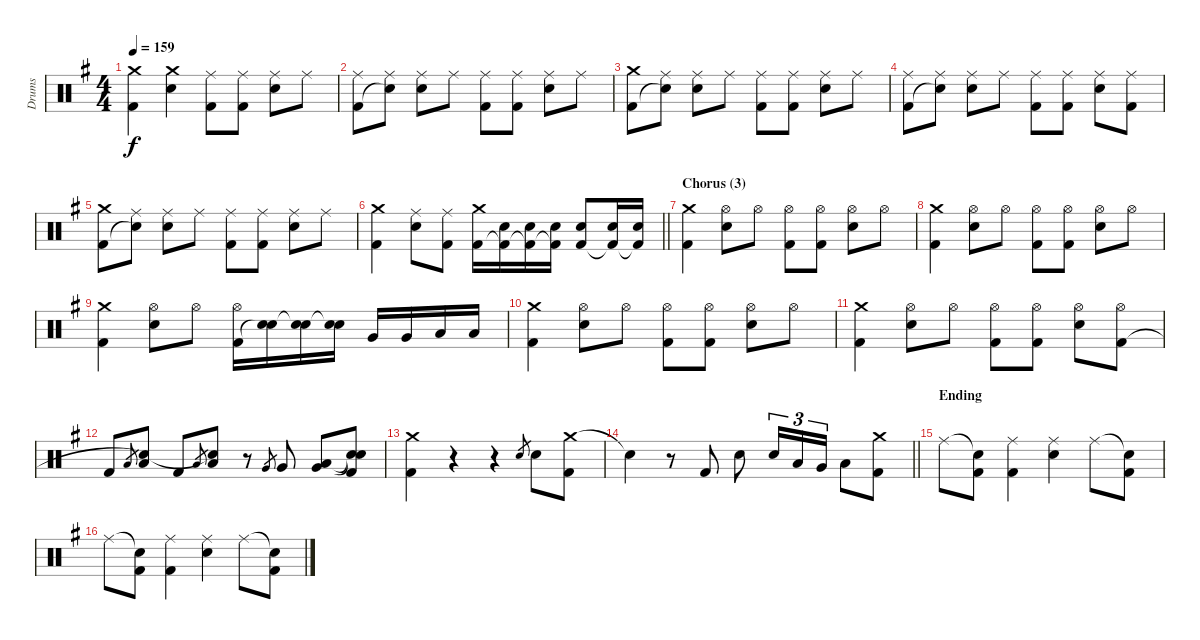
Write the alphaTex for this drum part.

\track ("Drums" "Drums") {instrument percussion}
\staff {score}
\articulation defaults
\ts (4 4)
\tempo 159
\clef neutral
\ks g
("Crash medium (hit)" "Kick (hit) 2").4{dy f} ("Crash medium (hit)" "Electric Snare (hit)").4 ("Ride (middle)" "Kick (hit) 2").8 ("Ride (middle)" "Kick (hit) 2").8 ("Ride (middle)" "Electric Snare (hit)").8 "Ride (middle)".8 |
("Ride (middle)" "Kick (hit) 2").8 ("Ride (middle)" "Snare (hit)"{t}).8 ("Ride (middle)" "Electric Snare (hit)").8 "Ride (middle)".8 ("Ride (middle)" "Kick (hit) 2").8 ("Ride (middle)" "Kick (hit) 2").8 ("Ride (middle)" "Electric Snare (hit)").8 "Ride (middle)".8 |
("Crash medium (hit)" "Kick (hit) 2").8 ("Ride (middle)" "Snare (hit)"{t}).8 ("Ride (middle)" "Electric Snare (hit)").8 "Ride (middle)".8 ("Ride (middle)" "Kick (hit) 2").8 ("Ride (middle)" "Kick (hit) 2").8 ("Ride (middle)" "Electric Snare (hit)").8 "Ride (middle)".8 |
("Ride (middle)" "Kick (hit) 2").8 ("Ride (middle)" "Snare (hit)"{t}).8 ("Ride (middle)" "Electric Snare (hit)").8 "Ride (middle)".8 ("Ride (middle)" "Kick (hit) 2").8 ("Ride (middle)" "Kick (hit) 2").8 ("Ride (middle)" "Electric Snare (hit)").8 ("Ride (middle)" "Kick (hit) 2").8 |
("Crash medium (hit)" "Kick (hit) 2").8 ("Ride (middle)" "Snare (hit)"{t}).8 ("Ride (middle)" "Electric Snare (hit)").8 "Ride (middle)".8 ("Ride (middle)" "Kick (hit) 2").8 ("Ride (middle)" "Kick (hit) 2").8 ("Ride (middle)" "Electric Snare (hit)").8 "Ride (middle)".8 |
\barLineRight lightlight
("Crash medium (hit)" "Kick (hit) 2").4 ("Ride (middle)" "Electric Snare (hit)").8 ("Ride (middle)" "Kick (hit) 2").8 ("Crash medium (hit)" "Kick (hit) 2").16 ("Electric Snare (hit)" "Kick (hit) 2"{t}).16 ("Electric Snare (hit)" "Kick (hit) 2"{t}).16 ("Electric Snare (hit)" "Kick (hit) 2"{t}).16 ("Electric Snare (hit)" "Kick (hit) 2").8 ("Electric Snare (hit)" "Kick (hit) 2"{t}).16 ("Electric Snare (hit)" "Kick (hit) 2"{t}).16 |
\section ("" "Chorus (3)")
("Crash medium (hit)" "Kick (hit) 2").4 ("Hi-Hat (open)" "Electric Snare (hit)").8 "Hi-Hat (open)".8 ("Hi-Hat (open)" "Kick (hit) 2").8 ("Hi-Hat (open)" "Kick (hit) 2").8 ("Hi-Hat (open)" "Electric Snare (hit)").8 "Hi-Hat (open)".8 |
("Crash medium (hit)" "Kick (hit) 2").4 ("Hi-Hat (open)" "Electric Snare (hit)").8 "Hi-Hat (open)".8 ("Hi-Hat (open)" "Kick (hit) 2").8 ("Hi-Hat (open)" "Kick (hit) 2").8 ("Hi-Hat (open)" "Electric Snare (hit)").8 "Hi-Hat (open)".8 |
("Crash medium (hit)" "Kick (hit) 2").4 ("Hi-Hat (open)" "Electric Snare (hit)").8 "Hi-Hat (open)".8 ("Hi-Hat (open)" "Kick (hit) 2").16 ("Electric Snare (hit)" "Snare (hit)"{t}).16 ("Electric Snare (hit)" "Snare (hit)"{t}).16 ("Electric Snare (hit)" "Snare (hit)"{t}).16 "Very Low Tom (hit)".16 "Very Low Tom (hit)".16 "Low Floor Tom (hit)".16 "Low Floor Tom (hit)".16 |
("Crash medium (hit)" "Kick (hit) 2").4 ("Hi-Hat (open)" "Electric Snare (hit)").8 "Hi-Hat (open)".8 ("Hi-Hat (open)" "Kick (hit) 2").8 ("Hi-Hat (open)" "Kick (hit) 2").8 ("Hi-Hat (open)" "Electric Snare (hit)").8 "Hi-Hat (open)".8 |
("Crash medium (hit)" "Kick (hit) 2").4 ("Hi-Hat (open)" "Electric Snare (hit)").8 "Hi-Hat (open)".8 ("Hi-Hat (open)" "Kick (hit) 2").8 ("Hi-Hat (open)" "Kick (hit) 2").8 ("Hi-Hat (open)" "Electric Snare (hit)").8 ("Hi-Hat (open)" "Kick (hit) 2").8 |
"Kick (hit) 2".8 "Low Tom (hit)".8{gr} ("Low Tom (hit)" "Snare (hit)"{t}).8 "Kick (hit) 2".8 "Low Tom (hit)".8{gr} ("Low Tom (hit)" "Snare (hit)"{t}).8 r.8 "Very Low Tom (hit)".8{gr} "Very Low Tom (hit)".8 ("Very Low Tom (hit)" "Low Floor Tom (hit)").8 ("Snare (hit)"{t} "Snare (hit)"{t} "Kick (hit) 2").8 |
("Crash medium (hit)" "Kick (hit) 2").4 r.4 r.4 "Electric Snare (hit)".8{gr} "Electric Snare (hit)".8 ("Crash medium (hit)" "Kick (hit) 2").8 |
\barLineRight lightlight "Snare (hit)"{t}.4
r.8 "Kick (hit) 2".8 "Electric Snare (hit)".8 "Electric Snare (hit)".16{tu (3 2)} "Low Tom (hit)".16{tu (3 2)} "Very Low Tom (hit)".16{tu (3 2)} "Low Floor Tom (hit)".8 ("Crash medium (hit)" "Kick (hit) 2").8 |
\section ("" "Ending")
"Ride (middle)".8 ("Snare (hit)"{t} "Kick (hit) 2").8 ("Ride (middle)" "Kick (hit) 2").4 ("Ride (middle)" "Electric Snare (hit)").4 "Ride (middle)".8 ("Snare (hit)"{t} "Kick (hit) 2").8 |
"Ride (middle)".8 ("Snare (hit)"{t} "Kick (hit) 2").8 ("Ride (middle)" "Kick (hit) 2").4 ("Ride (middle)" "Electric Snare (hit)").4 "Ride (middle)".8 ("Snare (hit)"{t} "Kick (hit) 2").8
